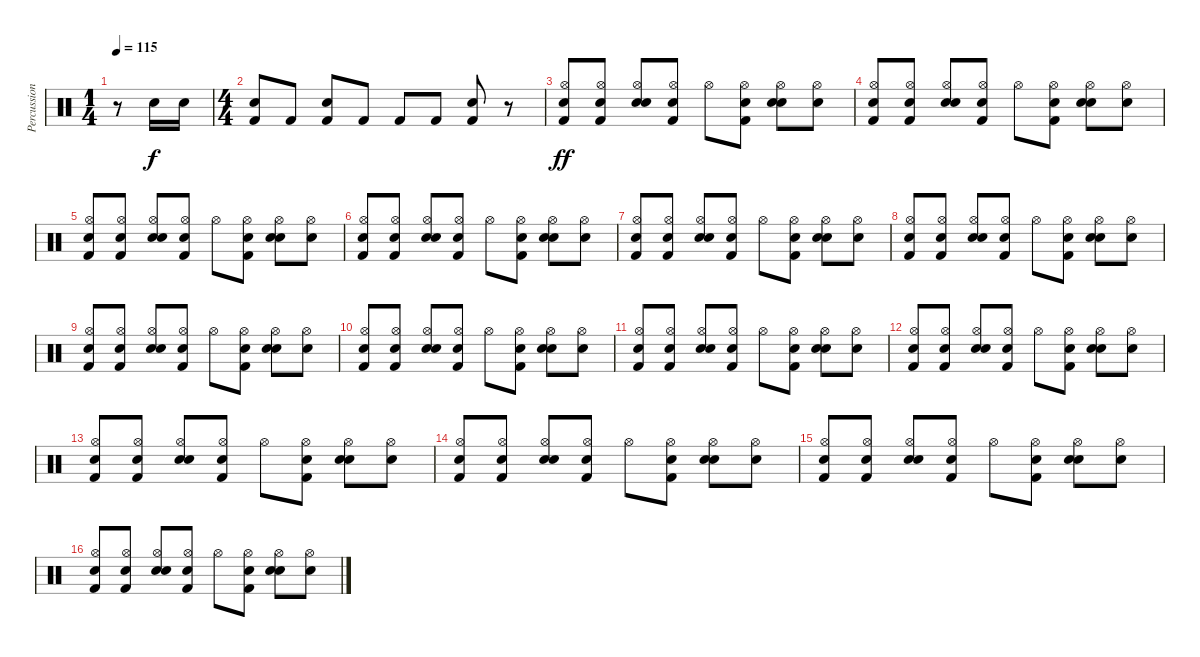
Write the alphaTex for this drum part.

\track ("Percussions / hands" "Percussion") {instrument percussion}
\staff {score}
\articulation defaults
\ts (1 4)
\tempo 115
\clef neutral
\ks c
r.8{dy f} "Electric Snare (hit)".16 "Electric Snare (hit)".16 |
\ts (4 4)
("Electric Snare (hit)" "Kick (hit) 2").8 "Kick (hit) 2".8 ("Electric Snare (hit)" "Kick (hit) 2").8 "Kick (hit) 2".8 "Kick (hit) 2".8 "Kick (hit) 2".8 ("Electric Snare (hit)" "Kick (hit) 2").8 r.8 |
("Hi-Hat (open)" "Kick (hit) 2" "Hand Clap (hit)").8{dy ff} ("Hi-Hat (open)" "Kick (hit) 2" "Hand Clap (hit)").8 ("Hi-Hat (open)" "Electric Snare (hit)" "Hand Clap (hit)").8 ("Hi-Hat (open)" "Kick (hit) 2" "Hand Clap (hit)").8 "Hi-Hat (open)".8 ("Hi-Hat (open)" "Kick (hit) 2" "Hand Clap (hit)").8 ("Hi-Hat (open)" "Electric Snare (hit)" "Hand Clap (hit)").8 ("Hi-Hat (open)" "Hand Clap (hit)").8 |
("Hi-Hat (open)" "Kick (hit) 2" "Hand Clap (hit)").8 ("Hi-Hat (open)" "Kick (hit) 2" "Hand Clap (hit)").8 ("Hi-Hat (open)" "Electric Snare (hit)" "Hand Clap (hit)").8 ("Hi-Hat (open)" "Kick (hit) 2" "Hand Clap (hit)").8 "Hi-Hat (open)".8 ("Hi-Hat (open)" "Kick (hit) 2" "Hand Clap (hit)").8 ("Hi-Hat (open)" "Electric Snare (hit)" "Hand Clap (hit)").8 ("Hi-Hat (open)" "Hand Clap (hit)").8 |
("Hi-Hat (open)" "Kick (hit) 2" "Hand Clap (hit)").8 ("Hi-Hat (open)" "Kick (hit) 2" "Hand Clap (hit)").8 ("Hi-Hat (open)" "Electric Snare (hit)" "Hand Clap (hit)").8 ("Hi-Hat (open)" "Kick (hit) 2" "Hand Clap (hit)").8 "Hi-Hat (open)".8 ("Hi-Hat (open)" "Kick (hit) 2" "Hand Clap (hit)").8 ("Hi-Hat (open)" "Electric Snare (hit)" "Hand Clap (hit)").8 ("Hi-Hat (open)" "Hand Clap (hit)").8 |
("Hi-Hat (open)" "Kick (hit) 2" "Hand Clap (hit)").8 ("Hi-Hat (open)" "Kick (hit) 2" "Hand Clap (hit)").8 ("Hi-Hat (open)" "Electric Snare (hit)" "Hand Clap (hit)").8 ("Hi-Hat (open)" "Kick (hit) 2" "Hand Clap (hit)").8 "Hi-Hat (open)".8 ("Hi-Hat (open)" "Kick (hit) 2" "Hand Clap (hit)").8 ("Hi-Hat (open)" "Electric Snare (hit)" "Hand Clap (hit)").8 ("Hi-Hat (open)" "Hand Clap (hit)").8 |
("Hi-Hat (open)" "Kick (hit) 2" "Hand Clap (hit)").8 ("Hi-Hat (open)" "Kick (hit) 2" "Hand Clap (hit)").8 ("Hi-Hat (open)" "Electric Snare (hit)" "Hand Clap (hit)").8 ("Hi-Hat (open)" "Kick (hit) 2" "Hand Clap (hit)").8 "Hi-Hat (open)".8 ("Hi-Hat (open)" "Kick (hit) 2" "Hand Clap (hit)").8 ("Hi-Hat (open)" "Electric Snare (hit)" "Hand Clap (hit)").8 ("Hi-Hat (open)" "Hand Clap (hit)").8 |
("Hi-Hat (open)" "Kick (hit) 2" "Hand Clap (hit)").8 ("Hi-Hat (open)" "Kick (hit) 2" "Hand Clap (hit)").8 ("Hi-Hat (open)" "Electric Snare (hit)" "Hand Clap (hit)").8 ("Hi-Hat (open)" "Kick (hit) 2" "Hand Clap (hit)").8 "Hi-Hat (open)".8 ("Hi-Hat (open)" "Kick (hit) 2" "Hand Clap (hit)").8 ("Hi-Hat (open)" "Electric Snare (hit)" "Hand Clap (hit)").8 ("Hi-Hat (open)" "Hand Clap (hit)").8 |
("Hi-Hat (open)" "Kick (hit) 2" "Hand Clap (hit)").8 ("Hi-Hat (open)" "Kick (hit) 2" "Hand Clap (hit)").8 ("Hi-Hat (open)" "Electric Snare (hit)" "Hand Clap (hit)").8 ("Hi-Hat (open)" "Kick (hit) 2" "Hand Clap (hit)").8 "Hi-Hat (open)".8 ("Hi-Hat (open)" "Kick (hit) 2" "Hand Clap (hit)").8 ("Hi-Hat (open)" "Electric Snare (hit)" "Hand Clap (hit)").8 ("Hi-Hat (open)" "Hand Clap (hit)").8 |
("Hi-Hat (open)" "Kick (hit) 2" "Hand Clap (hit)").8 ("Hi-Hat (open)" "Kick (hit) 2" "Hand Clap (hit)").8 ("Hi-Hat (open)" "Electric Snare (hit)" "Hand Clap (hit)").8 ("Hi-Hat (open)" "Kick (hit) 2" "Hand Clap (hit)").8 "Hi-Hat (open)".8 ("Hi-Hat (open)" "Kick (hit) 2" "Hand Clap (hit)").8 ("Hi-Hat (open)" "Electric Snare (hit)" "Hand Clap (hit)").8 ("Hi-Hat (open)" "Hand Clap (hit)").8 |
("Hi-Hat (open)" "Kick (hit) 2" "Hand Clap (hit)").8 ("Hi-Hat (open)" "Kick (hit) 2" "Hand Clap (hit)").8 ("Hi-Hat (open)" "Electric Snare (hit)" "Hand Clap (hit)").8 ("Hi-Hat (open)" "Kick (hit) 2" "Hand Clap (hit)").8 "Hi-Hat (open)".8 ("Hi-Hat (open)" "Kick (hit) 2" "Hand Clap (hit)").8 ("Hi-Hat (open)" "Electric Snare (hit)" "Hand Clap (hit)").8 ("Hi-Hat (open)" "Hand Clap (hit)").8 |
("Hi-Hat (open)" "Kick (hit) 2" "Hand Clap (hit)").8 ("Hi-Hat (open)" "Kick (hit) 2" "Hand Clap (hit)").8 ("Hi-Hat (open)" "Electric Snare (hit)" "Hand Clap (hit)").8 ("Hi-Hat (open)" "Kick (hit) 2" "Hand Clap (hit)").8 "Hi-Hat (open)".8 ("Hi-Hat (open)" "Kick (hit) 2" "Hand Clap (hit)").8 ("Hi-Hat (open)" "Electric Snare (hit)" "Hand Clap (hit)").8 ("Hi-Hat (open)" "Hand Clap (hit)").8 |
("Hi-Hat (open)" "Kick (hit) 2" "Hand Clap (hit)").8 ("Hi-Hat (open)" "Kick (hit) 2" "Hand Clap (hit)").8 ("Hi-Hat (open)" "Electric Snare (hit)" "Hand Clap (hit)").8 ("Hi-Hat (open)" "Kick (hit) 2" "Hand Clap (hit)").8 "Hi-Hat (open)".8 ("Hi-Hat (open)" "Kick (hit) 2" "Hand Clap (hit)").8 ("Hi-Hat (open)" "Electric Snare (hit)" "Hand Clap (hit)").8 ("Hi-Hat (open)" "Hand Clap (hit)").8 |
("Hi-Hat (open)" "Kick (hit) 2" "Hand Clap (hit)").8 ("Hi-Hat (open)" "Kick (hit) 2" "Hand Clap (hit)").8 ("Hi-Hat (open)" "Electric Snare (hit)" "Hand Clap (hit)").8 ("Hi-Hat (open)" "Kick (hit) 2" "Hand Clap (hit)").8 "Hi-Hat (open)".8 ("Hi-Hat (open)" "Kick (hit) 2" "Hand Clap (hit)").8 ("Hi-Hat (open)" "Electric Snare (hit)" "Hand Clap (hit)").8 ("Hi-Hat (open)" "Hand Clap (hit)").8 |
("Hi-Hat (open)" "Kick (hit) 2" "Hand Clap (hit)").8 ("Hi-Hat (open)" "Kick (hit) 2" "Hand Clap (hit)").8 ("Hi-Hat (open)" "Electric Snare (hit)" "Hand Clap (hit)").8 ("Hi-Hat (open)" "Kick (hit) 2" "Hand Clap (hit)").8 "Hi-Hat (open)".8 ("Hi-Hat (open)" "Kick (hit) 2" "Hand Clap (hit)").8 ("Hi-Hat (open)" "Electric Snare (hit)" "Hand Clap (hit)").8 ("Hi-Hat (open)" "Hand Clap (hit)").8 |
("Hi-Hat (open)" "Kick (hit) 2" "Hand Clap (hit)").8 ("Hi-Hat (open)" "Kick (hit) 2" "Hand Clap (hit)").8 ("Hi-Hat (open)" "Electric Snare (hit)" "Hand Clap (hit)").8 ("Hi-Hat (open)" "Kick (hit) 2" "Hand Clap (hit)").8 "Hi-Hat (open)".8 ("Hi-Hat (open)" "Kick (hit) 2" "Hand Clap (hit)").8 ("Hi-Hat (open)" "Electric Snare (hit)" "Hand Clap (hit)").8 ("Hi-Hat (open)" "Hand Clap (hit)").8
